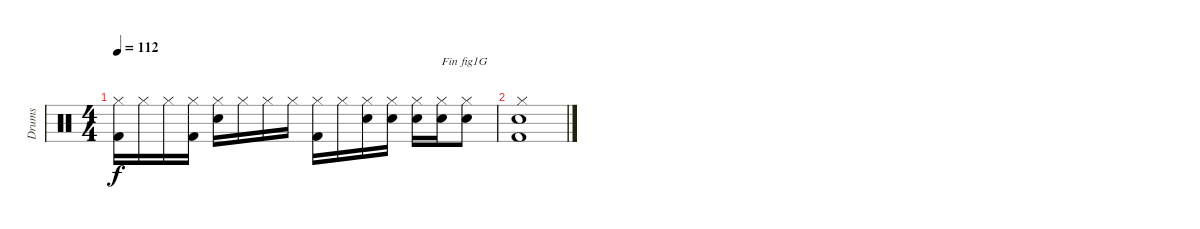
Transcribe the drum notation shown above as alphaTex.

\track ("Drums" "Drums") {instrument percussion}
\staff {score}
\articulation defaults
\ts (4 4)
\tempo 112
\clef neutral
\ks c
("Kick (hit) 2" "Hi-Hat (closed)").16{dy f} "Hi-Hat (closed)".16 "Hi-Hat (closed)".16 ("Kick (hit) 2" "Hi-Hat (closed)").16 ("Electric Snare (hit)" "Hi-Hat (closed)").16 "Hi-Hat (closed)".16 "Hi-Hat (closed)".16 "Hi-Hat (closed)".16 ("Kick (hit) 2" "Hi-Hat (closed)").16 "Hi-Hat (closed)".16 ("Electric Snare (hit)" "Hi-Hat (closed)").16 ("Electric Snare (hit)" "Hi-Hat (closed)").16 ("Electric Snare (hit)" "Hi-Hat (closed)").16 ("Electric Snare (hit)" "Hi-Hat (closed)").16{txt "Fin fig1G"} ("Electric Snare (hit)" "Hi-Hat (closed)").8 |
("Kick (hit) 2" "Electric Snare (hit)" "Hi-Hat (closed)").1
